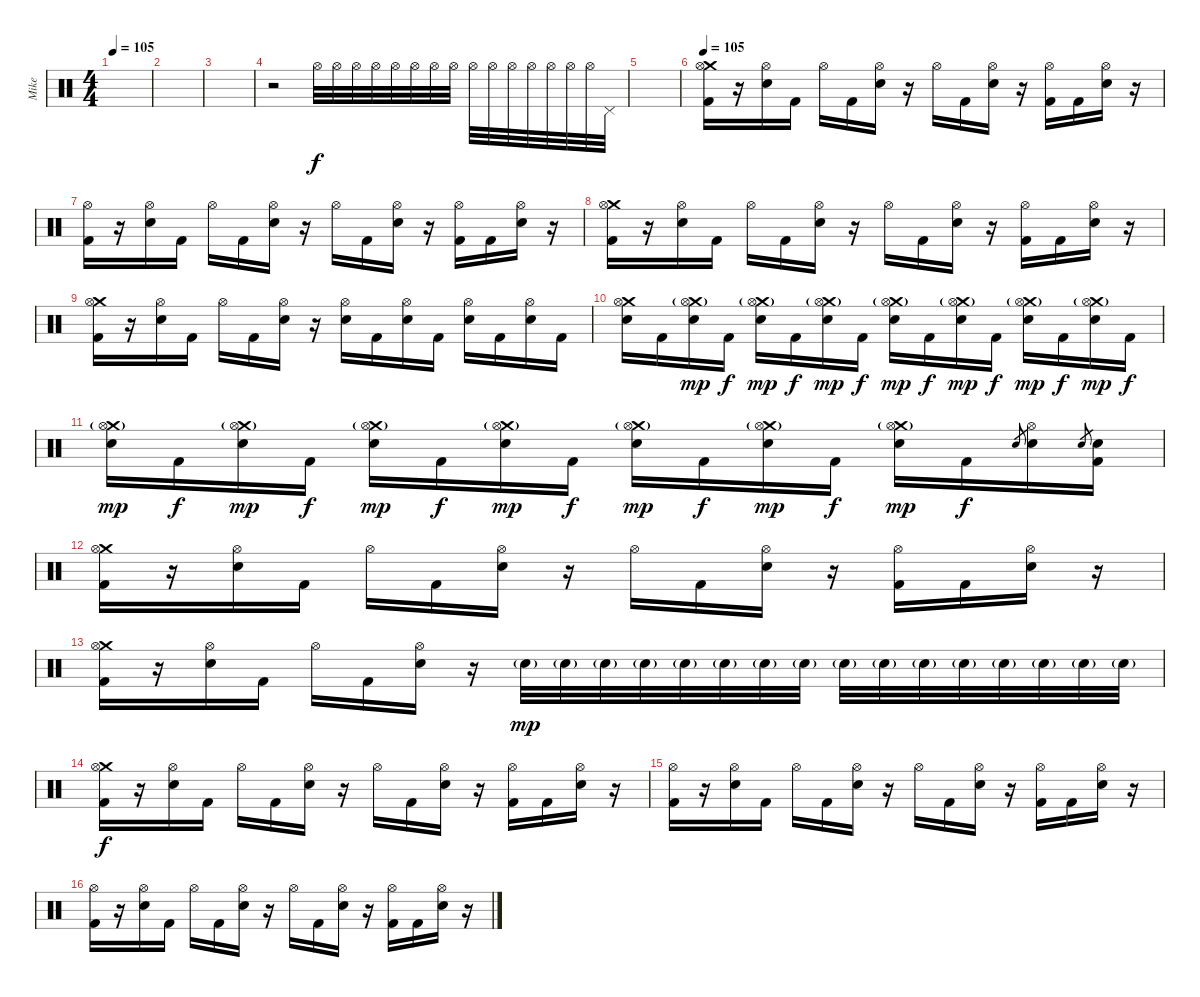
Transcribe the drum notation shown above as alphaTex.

\track ("Mike" "Mike") {instrument percussion}
\staff {score}
\articulation defaults
\ts (4 4)
\tempo 105
\tempo 70
\tempo 105
\clef neutral
\ks c
|
|
|
r.2{volume 0} "Hi-Hat (open)".32{volume 16} "Hi-Hat (open)".32 "Hi-Hat (open)".32 "Hi-Hat (open)".32 "Hi-Hat (open)".32 "Hi-Hat (open)".32 "Hi-Hat (open)".32 "Hi-Hat (open)".32 "Hi-Hat (open)".32 "Hi-Hat (open)".32 "Hi-Hat (open)".32 "Hi-Hat (open)".32 "Hi-Hat (open)".32 "Hi-Hat (open)".32 "Hi-Hat (open)".32 "Pedal Hi-Hat (hit)".32 |
|
\tempo 105
("Crash medium (hit)" "Hi-Hat (open)" "Kick (hit) 2").16 r.16 ("Hi-Hat (open)" "Electric Snare (hit)").16 "Kick (hit) 2".16 "Hi-Hat (open)".16 "Kick (hit) 2".16 ("Hi-Hat (open)" "Electric Snare (hit)").16 r.16 "Hi-Hat (open)".16 "Kick (hit) 2".16 ("Hi-Hat (open)" "Electric Snare (hit)").16 r.16 ("Hi-Hat (open)" "Kick (hit) 2").16 "Kick (hit) 2".16 ("Hi-Hat (open)" "Electric Snare (hit)").16 r.16 |
("Hi-Hat (open)" "Kick (hit) 2").16 r.16 ("Hi-Hat (open)" "Electric Snare (hit)").16 "Kick (hit) 2".16 "Hi-Hat (open)".16 "Kick (hit) 2".16 ("Hi-Hat (open)" "Electric Snare (hit)").16 r.16 "Hi-Hat (open)".16 "Kick (hit) 2".16 ("Hi-Hat (open)" "Electric Snare (hit)").16 r.16 ("Hi-Hat (open)" "Kick (hit) 2").16 "Kick (hit) 2".16 ("Hi-Hat (open)" "Electric Snare (hit)").16 r.16 |
("Crash medium (hit)" "Hi-Hat (open)" "Kick (hit) 2").16 r.16 ("Hi-Hat (open)" "Electric Snare (hit)").16 "Kick (hit) 2".16 "Hi-Hat (open)".16 "Kick (hit) 2".16 ("Hi-Hat (open)" "Electric Snare (hit)").16 r.16 "Hi-Hat (open)".16 "Kick (hit) 2".16 ("Hi-Hat (open)" "Electric Snare (hit)").16 r.16 ("Hi-Hat (open)" "Kick (hit) 2").16 "Kick (hit) 2".16 ("Hi-Hat (open)" "Electric Snare (hit)").16 r.16 |
("Crash medium (hit)" "Hi-Hat (open)" "Kick (hit) 2").16 r.16 ("Hi-Hat (open)" "Electric Snare (hit)").16 "Kick (hit) 2".16 "Hi-Hat (open)".16 "Kick (hit) 2".16 ("Hi-Hat (open)" "Electric Snare (hit)").16 r.16 ("Hi-Hat (open)" "Electric Snare (hit)").16 "Kick (hit) 2".16 ("Hi-Hat (open)" "Electric Snare (hit)").16 "Kick (hit) 2".16 ("Hi-Hat (open)" "Electric Snare (hit)").16 "Kick (hit) 2".16 ("Hi-Hat (open)" "Electric Snare (hit)").16 "Kick (hit) 2".16 |
("Crash medium (hit)" "Hi-Hat (open)" "Electric Snare (hit)").16 "Kick (hit) 2".16 ("Crash medium (hit)"{g} "Hi-Hat (open)" "Electric Snare (hit)").16{dy mp} "Kick (hit) 2".16{dy f} ("Crash medium (hit)"{g} "Hi-Hat (open)" "Electric Snare (hit)").16{dy mp} "Kick (hit) 2".16{dy f} ("Crash medium (hit)"{g} "Hi-Hat (open)" "Electric Snare (hit)").16{dy mp} "Kick (hit) 2".16{dy f} ("Crash medium (hit)"{g} "Hi-Hat (open)" "Electric Snare (hit)").16{dy mp} "Kick (hit) 2".16{dy f} ("Crash medium (hit)"{g} "Hi-Hat (open)" "Electric Snare (hit)").16{dy mp} "Kick (hit) 2".16{dy f} ("Crash medium (hit)"{g} "Hi-Hat (open)" "Electric Snare (hit)").16{dy mp} "Kick (hit) 2".16{dy f} ("Crash medium (hit)"{g} "Hi-Hat (open)" "Electric Snare (hit)").16{dy mp} "Kick (hit) 2".16{dy f} |
("Crash medium (hit)"{g} "Hi-Hat (open)" "Electric Snare (hit)").16{dy mp} "Kick (hit) 2".16{dy f} ("Crash medium (hit)"{g} "Hi-Hat (open)" "Electric Snare (hit)").16{dy mp} "Kick (hit) 2".16{dy f} ("Crash medium (hit)"{g} "Hi-Hat (open)" "Electric Snare (hit)").16{dy mp} "Kick (hit) 2".16{dy f} ("Crash medium (hit)"{g} "Hi-Hat (open)" "Electric Snare (hit)").16{dy mp} "Kick (hit) 2".16{dy f} ("Crash medium (hit)"{g} "Hi-Hat (open)" "Electric Snare (hit)").16{dy mp} "Kick (hit) 2".16{dy f} ("Crash medium (hit)"{g} "Hi-Hat (open)" "Electric Snare (hit)").16{dy mp} "Kick (hit) 2".16{dy f} ("Crash medium (hit)"{g} "Hi-Hat (open)" "Electric Snare (hit)").16{dy mp} "Kick (hit) 2".16{dy f} "Electric Snare (hit)".8{gr} ("Hi-Hat (open)" "Electric Snare (hit)").16 "Electric Snare (hit)".8{gr} ("Electric Snare (hit)" "Kick (hit) 2").16 |
("Crash medium (hit)" "Hi-Hat (open)" "Kick (hit) 2").16 r.16 ("Hi-Hat (open)" "Electric Snare (hit)").16 "Kick (hit) 2".16 "Hi-Hat (open)".16 "Kick (hit) 2".16 ("Hi-Hat (open)" "Electric Snare (hit)").16 r.16 "Hi-Hat (open)".16 "Kick (hit) 2".16 ("Hi-Hat (open)" "Electric Snare (hit)").16 r.16 ("Hi-Hat (open)" "Kick (hit) 2").16 "Kick (hit) 2".16 ("Hi-Hat (open)" "Electric Snare (hit)").16 r.16 |
("Crash medium (hit)" "Hi-Hat (open)" "Kick (hit) 2").16 r.16 ("Hi-Hat (open)" "Electric Snare (hit)").16 "Kick (hit) 2".16 "Hi-Hat (open)".16 "Kick (hit) 2".16 ("Hi-Hat (open)" "Electric Snare (hit)").16 r.16 "Electric Snare (hit)"{g}.32{dy mp} "Electric Snare (hit)"{g}.32 "Electric Snare (hit)"{g}.32 "Electric Snare (hit)"{g}.32 "Electric Snare (hit)"{g}.32 "Electric Snare (hit)"{g}.32 "Electric Snare (hit)"{g}.32 "Electric Snare (hit)"{g}.32 "Electric Snare (hit)"{g}.32 "Electric Snare (hit)"{g}.32 "Electric Snare (hit)"{g}.32 "Electric Snare (hit)"{g}.32 "Electric Snare (hit)"{g}.32 "Electric Snare (hit)"{g}.32 "Electric Snare (hit)"{g}.32 "Electric Snare (hit)"{g}.32 |
("Crash medium (hit)" "Hi-Hat (open)" "Kick (hit) 2").16{dy f} r.16 ("Hi-Hat (open)" "Electric Snare (hit)").16 "Kick (hit) 2".16 "Hi-Hat (open)".16 "Kick (hit) 2".16 ("Hi-Hat (open)" "Electric Snare (hit)").16 r.16 "Hi-Hat (open)".16 "Kick (hit) 2".16 ("Hi-Hat (open)" "Electric Snare (hit)").16 r.16 ("Hi-Hat (open)" "Kick (hit) 2").16 "Kick (hit) 2".16 ("Hi-Hat (open)" "Electric Snare (hit)").16 r.16 |
("Hi-Hat (open)" "Kick (hit) 2").16 r.16 ("Hi-Hat (open)" "Electric Snare (hit)").16 "Kick (hit) 2".16 "Hi-Hat (open)".16 "Kick (hit) 2".16 ("Hi-Hat (open)" "Electric Snare (hit)").16 r.16 "Hi-Hat (open)".16 "Kick (hit) 2".16 ("Hi-Hat (open)" "Electric Snare (hit)").16 r.16 ("Hi-Hat (open)" "Kick (hit) 2").16 "Kick (hit) 2".16 ("Hi-Hat (open)" "Electric Snare (hit)").16 r.16 |
("Hi-Hat (open)" "Kick (hit) 2").16 r.16 ("Hi-Hat (open)" "Electric Snare (hit)").16 "Kick (hit) 2".16 "Hi-Hat (open)".16 "Kick (hit) 2".16 ("Hi-Hat (open)" "Electric Snare (hit)").16 r.16 "Hi-Hat (open)".16 "Kick (hit) 2".16 ("Hi-Hat (open)" "Electric Snare (hit)").16 r.16 ("Hi-Hat (open)" "Kick (hit) 2").16 "Kick (hit) 2".16 ("Hi-Hat (open)" "Electric Snare (hit)").16 r.16
